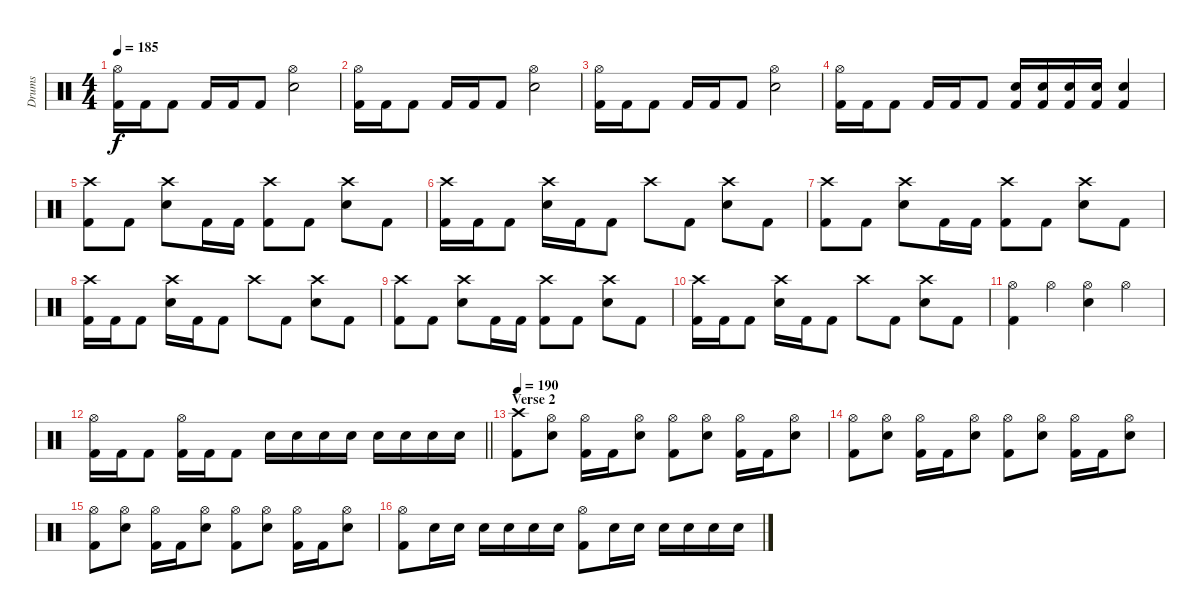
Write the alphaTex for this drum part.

\track ("Drums" "Drums") {instrument percussion}
\staff {score}
\articulation defaults
\ts (4 4)
\tempo 185
\clef neutral
\ks c
("Hi-Hat (open)" "Kick (hit) 2").16{dy f} "Kick (hit) 2".16 "Kick (hit) 2".8 "Kick (hit) 2".16 "Kick (hit) 2".16 "Kick (hit) 2".8 ("Hi-Hat (open)" "Snare (hit) 2").2 |
("Hi-Hat (open)" "Kick (hit) 2").16 "Kick (hit) 2".16 "Kick (hit) 2".8 "Kick (hit) 2".16 "Kick (hit) 2".16 "Kick (hit) 2".8 ("Hi-Hat (open)" "Snare (hit) 2").2 |
("Hi-Hat (open)" "Kick (hit) 2").16 "Kick (hit) 2".16 "Kick (hit) 2".8 "Kick (hit) 2".16 "Kick (hit) 2".16 "Kick (hit) 2".8 ("Hi-Hat (open)" "Snare (hit) 2").2 |
("Hi-Hat (open)" "Kick (hit) 2").16 "Kick (hit) 2".16 "Kick (hit) 2".8 "Kick (hit) 2".16 "Kick (hit) 2".16 "Kick (hit) 2".8 ("Snare (hit) 2" "Kick (hit) 2").16 ("Snare (hit) 2" "Kick (hit) 2").16 ("Snare (hit) 2" "Kick (hit) 2").16 ("Snare (hit) 2" "Kick (hit) 2").16 ("Snare (hit) 2" "Kick (hit) 2").4 |
("Crash high (hit)" "Kick (hit) 2").8 "Kick (hit) 2".8 ("Crash high (hit)" "Snare (hit) 2").8 "Kick (hit) 2".16 "Kick (hit) 2".16 ("Crash high (hit)" "Kick (hit) 2").8 "Kick (hit) 2".8 ("Crash high (hit)" "Snare (hit) 2").8 "Kick (hit) 2".8 |
("Crash high (hit)" "Kick (hit) 2").16 "Kick (hit) 2".16 "Kick (hit) 2".8 ("Crash high (hit)" "Snare (hit) 2").16 "Kick (hit) 2".16 "Kick (hit) 2".8 "Crash high (hit)".8 "Kick (hit) 2".8 ("Crash high (hit)" "Snare (hit) 2").8 "Kick (hit) 2".8 |
("Crash high (hit)" "Kick (hit) 2").8 "Kick (hit) 2".8 ("Crash high (hit)" "Snare (hit) 2").8 "Kick (hit) 2".16 "Kick (hit) 2".16 ("Crash high (hit)" "Kick (hit) 2").8 "Kick (hit) 2".8 ("Crash high (hit)" "Snare (hit) 2").8 "Kick (hit) 2".8 |
("Crash high (hit)" "Kick (hit) 2").16 "Kick (hit) 2".16 "Kick (hit) 2".8 ("Crash high (hit)" "Snare (hit) 2").16 "Kick (hit) 2".16 "Kick (hit) 2".8 "Crash high (hit)".8 "Kick (hit) 2".8 ("Crash high (hit)" "Snare (hit) 2").8 "Kick (hit) 2".8 |
("Crash high (hit)" "Kick (hit) 2").8 "Kick (hit) 2".8 ("Crash high (hit)" "Snare (hit) 2").8 "Kick (hit) 2".16 "Kick (hit) 2".16 ("Crash high (hit)" "Kick (hit) 2").8 "Kick (hit) 2".8 ("Crash high (hit)" "Snare (hit) 2").8 "Kick (hit) 2".8 |
("Crash high (hit)" "Kick (hit) 2").16 "Kick (hit) 2".16 "Kick (hit) 2".8 ("Crash high (hit)" "Snare (hit) 2").16 "Kick (hit) 2".16 "Kick (hit) 2".8 "Crash high (hit)".8 "Kick (hit) 2".8 ("Crash high (hit)" "Snare (hit) 2").8 "Kick (hit) 2".8 |
("Hi-Hat (open)" "Kick (hit) 2").4 "Hi-Hat (open)".4 ("Hi-Hat (open)" "Snare (hit) 2").4 "Hi-Hat (open)".4 |
\barLineRight lightlight
("Hi-Hat (open)" "Kick (hit) 2").16 "Kick (hit) 2".16 "Kick (hit) 2".8 ("Hi-Hat (open)" "Kick (hit) 2").16 "Kick (hit) 2".16 "Kick (hit) 2".8 "Snare (hit) 2".16 "Snare (hit) 2".16 "Snare (hit) 2".16 "Snare (hit) 2".16 "Snare (hit) 2".16 "Snare (hit) 2".16 "Snare (hit) 2".16 "Snare (hit) 2".16 |
\section ("" "Verse 2")
\tempo 190
("Crash high (hit)" "Kick (hit) 2").8 ("Hi-Hat (open)" "Snare (hit) 2").8 ("Hi-Hat (open)" "Kick (hit) 2").16 "Kick (hit) 2".16 ("Hi-Hat (open)" "Snare (hit) 2").8 ("Hi-Hat (open)" "Kick (hit) 2").8 ("Hi-Hat (open)" "Snare (hit) 2").8 ("Hi-Hat (open)" "Kick (hit) 2").16 "Kick (hit) 2".16 ("Hi-Hat (open)" "Snare (hit) 2").8 |
("Hi-Hat (open)" "Kick (hit) 2").8 ("Hi-Hat (open)" "Snare (hit) 2").8 ("Hi-Hat (open)" "Kick (hit) 2").16 "Kick (hit) 2".16 ("Hi-Hat (open)" "Snare (hit) 2").8 ("Hi-Hat (open)" "Kick (hit) 2").8 ("Hi-Hat (open)" "Snare (hit) 2").8 ("Hi-Hat (open)" "Kick (hit) 2").16 "Kick (hit) 2".16 ("Hi-Hat (open)" "Snare (hit) 2").8 |
("Hi-Hat (open)" "Kick (hit) 2").8 ("Hi-Hat (open)" "Snare (hit) 2").8 ("Hi-Hat (open)" "Kick (hit) 2").16 "Kick (hit) 2".16 ("Hi-Hat (open)" "Snare (hit) 2").8 ("Hi-Hat (open)" "Kick (hit) 2").8 ("Hi-Hat (open)" "Snare (hit) 2").8 ("Hi-Hat (open)" "Kick (hit) 2").16 "Kick (hit) 2".16 ("Hi-Hat (open)" "Snare (hit) 2").8 |
("Hi-Hat (open)" "Kick (hit) 2").8 "Snare (hit) 2".16 "Snare (hit) 2".16 "Snare (hit) 2".16 "Snare (hit) 2".16 "Snare (hit) 2".16 "Snare (hit) 2".16 ("Hi-Hat (open)" "Kick (hit) 2").8 "Snare (hit) 2".16 "Snare (hit) 2".16 "Snare (hit) 2".16 "Snare (hit) 2".16 "Snare (hit) 2".16 "Snare (hit) 2".16
